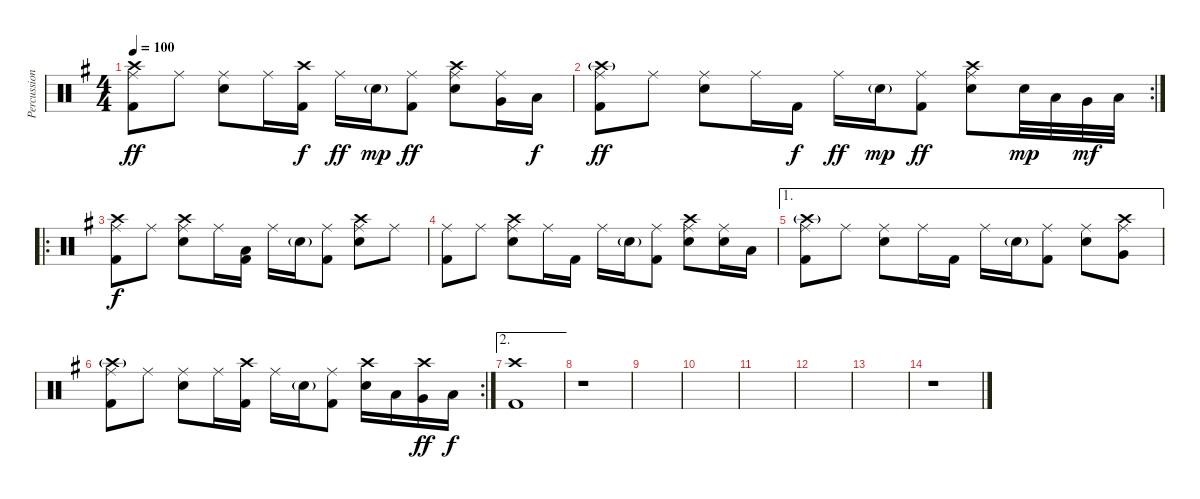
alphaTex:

\track ("Percussion" "Percussion") {instrument percussion}
\staff {score}
\articulation defaults
\ts (4 4)
\tempo 100
\clef neutral
\ks g
("Crash high (hit)" "Ride (middle)" "Kick (hit) 2").8{dy ff} "Ride (middle)".8 ("Ride (middle)" "Electric Snare (hit)").8 "Ride (middle)".16 ("Crash high (hit)" "Kick (hit) 2").16{dy f} "Ride (middle)".16{dy ff} "Electric Snare (hit)"{g}.16{dy mp} ("Ride (middle)" "Kick (hit) 2").8{dy ff} ("Crash high (hit)" "Ride (middle)" "Electric Snare (hit)").8 ("Ride (middle)" "Very Low Tom (hit)").16 "Low Floor Tom (hit)".16{dy f} |
\rc 2
("Crash high (hit)"{g} "Ride (middle)" "Kick (hit) 2").8{dy ff} "Ride (middle)".8 ("Ride (middle)" "Electric Snare (hit)").8 "Ride (middle)".16 "Kick (hit) 2".16{dy f} "Ride (middle)".16{dy ff} "Electric Snare (hit)"{g}.16{dy mp} ("Ride (middle)" "Kick (hit) 2").8{dy ff} ("Crash high (hit)" "Ride (middle)" "Electric Snare (hit)").8 "Electric Snare (hit)".32{dy mp} "Low Tom (hit)".32 "Very Low Tom (hit)".32{dy mf} "Low Floor Tom (hit)".32 |
\ro
("Crash high (hit)" "Ride (middle)" "Kick (hit) 2").8{dy f} "Ride (middle)".8 ("Crash high (hit)" "Ride (middle)" "Electric Snare (hit)").8 "Ride (middle)".16 ("Low Floor Tom (hit)" "Kick (hit) 2").16 "Ride (middle)".16 "Electric Snare (hit)"{g}.16 ("Ride (middle)" "Kick (hit) 2").8 ("Crash high (hit)" "Ride (middle)" "Electric Snare (hit)").8 "Ride (middle)".8 |
("Ride (middle)" "Kick (hit) 2").8 "Ride (middle)".8 ("Crash high (hit)" "Ride (middle)" "Electric Snare (hit)").8 "Ride (middle)".16 "Kick (hit) 2".16 "Ride (middle)".16 "Electric Snare (hit)"{g}.16 ("Ride (middle)" "Kick (hit) 2").8 ("Crash high (hit)" "Ride (middle)" "Electric Snare (hit)").8 ("Ride (middle)" "Electric Snare (hit)").16 "Low Floor Tom (hit)".16 |
\ae 1
("Crash high (hit)"{g} "Ride (middle)" "Kick (hit) 2").8 "Ride (middle)".8 ("Ride (middle)" "Electric Snare (hit)").8 "Ride (middle)".16 "Kick (hit) 2".16 "Ride (middle)".16 "Electric Snare (hit)"{g}.16 ("Ride (middle)" "Kick (hit) 2").8 ("Ride (middle)" "Electric Snare (hit)").8 ("Crash high (hit)" "Ride (middle)" "Very Low Tom (hit)").8 |
\rc 2
("Crash high (hit)"{g} "Ride (middle)" "Kick (hit) 2").8 "Ride (middle)".8 ("Ride (middle)" "Electric Snare (hit)").8 "Ride (middle)".16 ("Crash high (hit)" "Kick (hit) 2").16 "Ride (middle)".16 "Electric Snare (hit)"{g}.16 ("Ride (middle)" "Kick (hit) 2").8 ("Crash high (hit)" "Electric Snare (hit)").16 "Low Tom (hit)".16 ("Crash high (hit)" "Very Low Tom (hit)").16{dy ff} "Low Floor Tom (hit)".16{dy f} |
\ae 2
("Kick (hit) 2" "Crash high (hit)").1 |
r.1 |
|
|
|
|
|
r.1
